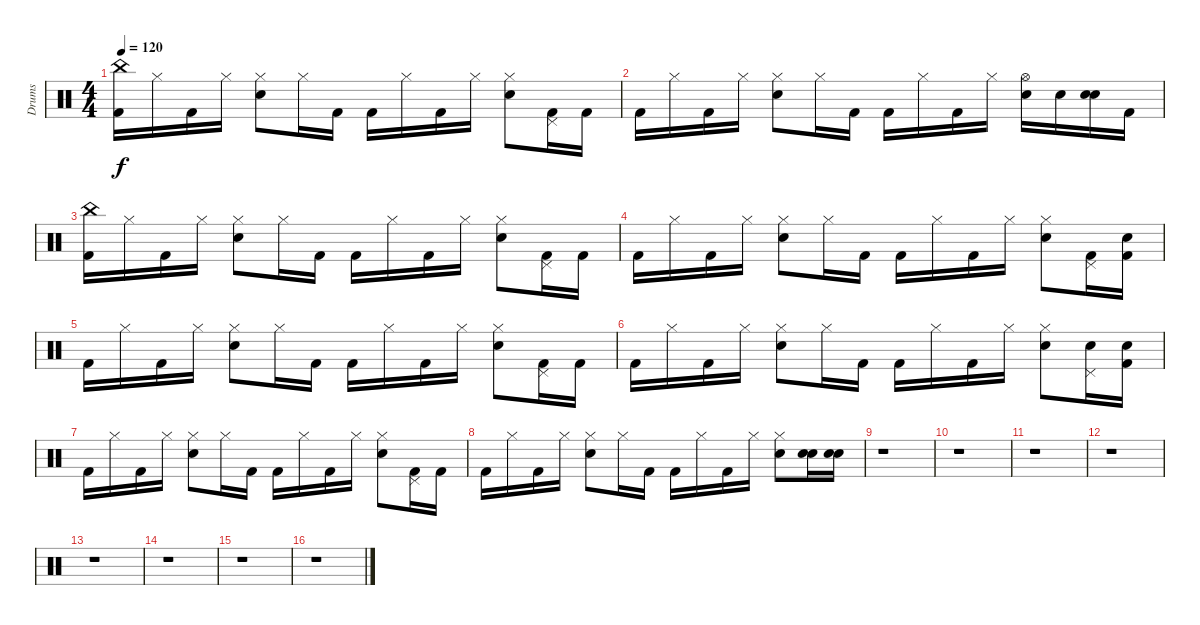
\track ("Drums" "Drums") {instrument percussion}
\staff {score}
\articulation defaults
\ts (4 4)
\tempo 120
\clef neutral
\ks c
("China (hit)" "Kick (hit) 2").16{dy f} "Hi-Hat (closed)".16 "Kick (hit) 2".16 "Hi-Hat (closed)".16 ("Hi-Hat (closed)" "Snare (hit) 2").8 "Hi-Hat (closed)".16 "Kick (hit) 2".16 "Kick (hit) 2".16 "Hi-Hat (closed)".16 "Kick (hit) 2".16 "Hi-Hat (closed)".16 ("Hi-Hat (closed)" "Snare (hit) 2").8 ("Pedal Hi-Hat (hit)" "Kick (hit) 2").16 "Kick (hit) 2".16 |
"Kick (hit) 2".16 "Hi-Hat (closed)".16 "Kick (hit) 2".16 "Hi-Hat (closed)".16 ("Hi-Hat (closed)" "Snare (hit) 2").8 "Hi-Hat (closed)".16 "Kick (hit) 2".16 "Kick (hit) 2".16 "Hi-Hat (closed)".16 "Kick (hit) 2".16 "Hi-Hat (closed)".16 ("Hi-Hat (open)" "Electric Snare (hit)").16 "Electric Snare (hit)".16 ("Electric Snare (hit)" "Snare (hit) 2").16 "Kick (hit) 2".16 |
("China (hit)" "Kick (hit) 2").16 "Hi-Hat (closed)".16 "Kick (hit) 2".16 "Hi-Hat (closed)".16 ("Hi-Hat (closed)" "Snare (hit) 2").8 "Hi-Hat (closed)".16 "Kick (hit) 2".16 "Kick (hit) 2".16 "Hi-Hat (closed)".16 "Kick (hit) 2".16 "Hi-Hat (closed)".16 ("Hi-Hat (closed)" "Snare (hit) 2").8 ("Pedal Hi-Hat (hit)" "Kick (hit) 2").16 "Kick (hit) 2".16 |
"Kick (hit) 2".16 "Hi-Hat (closed)".16 "Kick (hit) 2".16 "Hi-Hat (closed)".16 ("Hi-Hat (closed)" "Snare (hit) 2").8 "Hi-Hat (closed)".16 "Kick (hit) 2".16 "Kick (hit) 2".16 "Hi-Hat (closed)".16 "Kick (hit) 2".16 "Hi-Hat (closed)".16 ("Hi-Hat (closed)" "Snare (hit) 2").8 ("Pedal Hi-Hat (hit)" "Kick (hit) 2").16 ("Snare (hit) 2" "Kick (hit) 2").16 |
"Kick (hit) 2".16 "Hi-Hat (closed)".16 "Kick (hit) 2".16 "Hi-Hat (closed)".16 ("Hi-Hat (closed)" "Snare (hit) 2").8 "Hi-Hat (closed)".16 "Kick (hit) 2".16 "Kick (hit) 2".16 "Hi-Hat (closed)".16 "Kick (hit) 2".16 "Hi-Hat (closed)".16 ("Hi-Hat (closed)" "Snare (hit) 2").8 ("Pedal Hi-Hat (hit)" "Kick (hit) 2").16 "Kick (hit) 2".16 |
"Kick (hit) 2".16 "Hi-Hat (closed)".16 "Kick (hit) 2".16 "Hi-Hat (closed)".16 ("Hi-Hat (closed)" "Snare (hit) 2").8 "Hi-Hat (closed)".16 "Kick (hit) 2".16 "Kick (hit) 2".16 "Hi-Hat (closed)".16 "Kick (hit) 2".16 "Hi-Hat (closed)".16 ("Hi-Hat (closed)" "Snare (hit) 2").8 ("Electric Snare (hit)" "Pedal Hi-Hat (hit)").16 ("Electric Snare (hit)" "Kick (hit) 2").16 |
"Kick (hit) 2".16 "Hi-Hat (closed)".16 "Kick (hit) 2".16 "Hi-Hat (closed)".16 ("Hi-Hat (closed)" "Snare (hit) 2").8 "Hi-Hat (closed)".16 "Kick (hit) 2".16 "Kick (hit) 2".16 "Hi-Hat (closed)".16 "Kick (hit) 2".16 "Hi-Hat (closed)".16 ("Hi-Hat (closed)" "Snare (hit) 2").8 ("Pedal Hi-Hat (hit)" "Kick (hit) 2").16 "Kick (hit) 2".16 |
"Kick (hit) 2".16 "Hi-Hat (closed)".16 "Kick (hit) 2".16 "Hi-Hat (closed)".16 ("Hi-Hat (closed)" "Snare (hit) 2").8 "Hi-Hat (closed)".16 "Kick (hit) 2".16 "Kick (hit) 2".16 "Hi-Hat (closed)".16 "Kick (hit) 2".16 "Hi-Hat (closed)".16 ("Hi-Hat (closed)" "Snare (hit) 2").8 ("Snare (hit) 2" "Electric Snare (hit)").16 ("Snare (hit) 2" "Electric Snare (hit)").16 |
r.1 |
r.1 |
r.1 |
r.1 |
r.1 |
r.1 |
r.1 |
r.1
